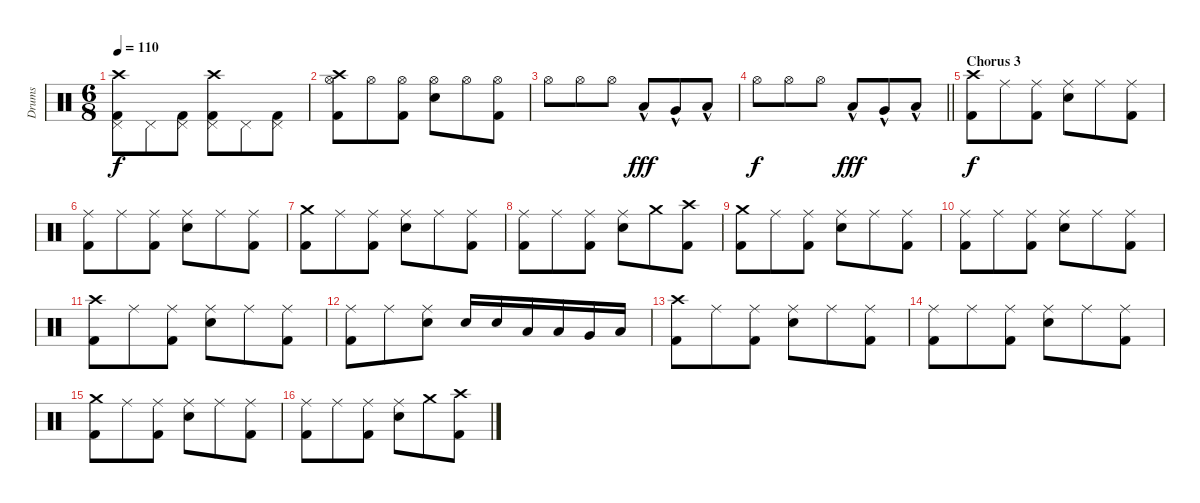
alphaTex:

\track ("Drums" "Drums") {instrument percussion}
\staff {score}
\articulation defaults
\ts (6 8)
\tempo 110
\clef neutral
\ks c
("Crash high (hit)" "Pedal Hi-Hat (hit)" "Kick (hit) 2").8{dy f} "Pedal Hi-Hat (hit)".8 ("Pedal Hi-Hat (hit)" "Kick (hit) 2").8 ("Crash high (hit)" "Pedal Hi-Hat (hit)" "Kick (hit) 2").8 "Pedal Hi-Hat (hit)".8 ("Pedal Hi-Hat (hit)" "Kick (hit) 2").8 |
("Crash high (hit)" "Hi-Hat (open)" "Kick (hit) 2").8 "Hi-Hat (open)".8 ("Hi-Hat (open)" "Kick (hit) 2").8 ("Hi-Hat (open)" "Snare (hit) 2").8 "Hi-Hat (open)".8 ("Hi-Hat (open)" "Kick (hit) 2").8 |
"Hi-Hat (open)".8 "Hi-Hat (open)".8 "Hi-Hat (open)".8 "Low Tom (hit)"{hac}.8{dy fff} "Very Low Tom (hit)"{hac}.8 "Low Floor Tom (hit)"{hac}.8 |
\barLineRight lightlight "Hi-Hat (open)".8{dy f} "Hi-Hat (open)".8 "Hi-Hat (open)".8 "Low Tom (hit)"{hac}.8{dy fff} "Very Low Tom (hit)"{hac}.8 "Low Floor Tom (hit)"{hac}.8
|
\section ("" "Chorus 3")
("Crash high (hit)" "Kick (hit) 2").8{dy f} "Ride (middle)".8 ("Ride (middle)" "Kick (hit) 2").8 ("Ride (middle)" "Snare (hit) 2").8 "Ride (middle)".8 ("Ride (middle)" "Kick (hit) 2").8 |
("Ride (middle)" "Kick (hit) 2").8 "Ride (middle)".8 ("Ride (middle)" "Kick (hit) 2").8 ("Ride (middle)" "Snare (hit) 2").8 "Ride (middle)".8 ("Ride (middle)" "Kick (hit) 2").8 |
("Crash medium (hit)" "Kick (hit) 2").8 "Ride (middle)".8 ("Ride (middle)" "Kick (hit) 2").8 ("Ride (middle)" "Snare (hit) 2").8 "Ride (middle)".8 ("Ride (middle)" "Kick (hit) 2").8 |
("Ride (middle)" "Kick (hit) 2").8 "Ride (middle)".8 ("Ride (middle)" "Kick (hit) 2").8 ("Ride (middle)" "Snare (hit) 2").8 "Crash medium (hit)".8 ("Crash high (hit)" "Kick (hit) 2").8 |
("Crash medium (hit)" "Kick (hit) 2").8 "Ride (middle)".8 ("Ride (middle)" "Kick (hit) 2").8 ("Ride (middle)" "Snare (hit) 2").8 "Ride (middle)".8 ("Ride (middle)" "Kick (hit) 2").8 |
("Ride (middle)" "Kick (hit) 2").8 "Ride (middle)".8 ("Ride (middle)" "Kick (hit) 2").8 ("Ride (middle)" "Snare (hit) 2").8 "Ride (middle)".8 ("Ride (middle)" "Kick (hit) 2").8 |
("Crash high (hit)" "Kick (hit) 2").8 "Ride (middle)".8 ("Ride (middle)" "Kick (hit) 2").8 ("Ride (middle)" "Snare (hit) 2").8 "Ride (middle)".8 ("Ride (middle)" "Kick (hit) 2").8 |
("Ride (middle)" "Kick (hit) 2").8 "Ride (middle)".8 ("Ride (middle)" "Snare (hit) 2").8 "Snare (hit) 2".16 "Snare (hit) 2".16 "Low Tom (hit)".16 "Low Tom (hit)".16 "Very Low Tom (hit)".16 "Low Floor Tom (hit)".16 |
("Crash high (hit)" "Kick (hit) 2").8 "Ride (middle)".8 ("Ride (middle)" "Kick (hit) 2").8 ("Ride (middle)" "Snare (hit) 2").8 "Ride (middle)".8 ("Ride (middle)" "Kick (hit) 2").8 |
("Ride (middle)" "Kick (hit) 2").8 "Ride (middle)".8 ("Ride (middle)" "Kick (hit) 2").8 ("Ride (middle)" "Snare (hit) 2").8 "Ride (middle)".8 ("Ride (middle)" "Kick (hit) 2").8 |
("Crash medium (hit)" "Kick (hit) 2").8 "Ride (middle)".8 ("Ride (middle)" "Kick (hit) 2").8 ("Ride (middle)" "Snare (hit) 2").8 "Ride (middle)".8 ("Ride (middle)" "Kick (hit) 2").8 |
("Ride (middle)" "Kick (hit) 2").8 "Ride (middle)".8 ("Ride (middle)" "Kick (hit) 2").8 ("Ride (middle)" "Snare (hit) 2").8 "Crash medium (hit)".8 ("Crash high (hit)" "Kick (hit) 2").8
